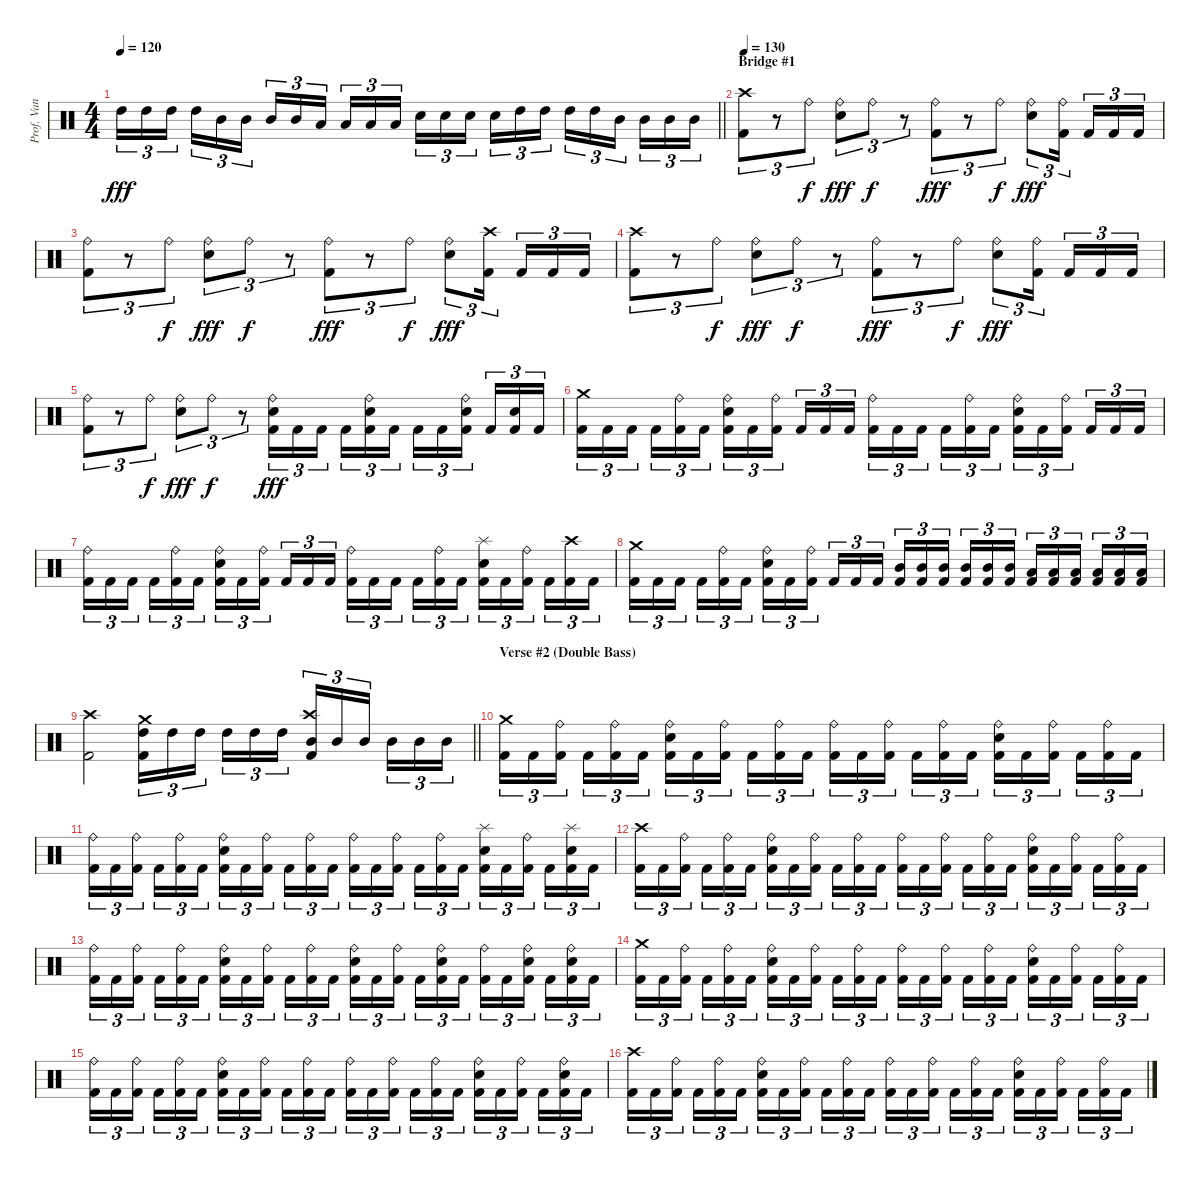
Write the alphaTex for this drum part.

\track ("Prof. Van Helsing (Drums)" "Prof. Van ") {instrument percussion}
\staff {score}
\articulation defaults
\ts (4 4)
\tempo 120
\clef neutral
\barLineRight lightlight
\ks c "High Tom (hit)".16{tu (3 2) dy fff} "High Tom (hit)".16{tu (3 2)} "High Tom (hit)".16{tu (3 2) beam splitsecondary} "High Tom (hit)".16{tu (3 2)} "Mid Tom (hit)".16{tu (3 2)} "Mid Tom (hit)".16{tu (3 2)} "Mid Tom (hit)".16{tu (3 2)} "Mid Tom (hit)".16{tu (3 2)} "Low Tom (hit)".16{tu (3 2) beam splitsecondary} "Low Tom (hit)".16{tu (3 2)} "Low Tom (hit)".16{tu (3 2)} "Low Tom (hit)".16{tu (3 2)} "Snare (hit) 2".16{tu (3 2)} "Snare (hit) 2".16{tu (3 2)} "Snare (hit) 2".16{tu (3 2) beam splitsecondary} "Snare (hit) 2".16{tu (3 2)} "High Tom (hit)".16{tu (3 2)} "High Tom (hit)".16{tu (3 2)} "High Tom (hit)".16{tu (3 2)} "High Tom (hit)".16{tu (3 2)} "Mid Tom (hit)".16{tu (3 2) beam splitsecondary} "Mid Tom (hit)".16{tu (3 2)} "Mid Tom (hit)".16{tu (3 2)} "Mid Tom (hit)".16{tu (3 2)}
|
\section ("" "Bridge #1")
\tempo 130
("Crash high (hit)" "Kick (hit) 2").8{tu (3 2)} r.8{tu (3 2)} "Ride (bell)".8{tu (3 2) dy f} ("Ride (bell)" "Snare (hit) 2").8{tu (3 2) dy fff} "Ride (bell)".8{tu (3 2) dy f} r.8{tu (3 2)} ("Ride (bell)" "Kick (hit) 2").8{tu (3 2) dy fff} r.8{tu (3 2)} "Ride (bell)".8{tu (3 2) dy f} ("Ride (bell)" "Snare (hit) 2").8{tu (3 2) dy fff} ("Ride (bell)" "Kick (hit) 2").16{tu (3 2) beam splitsecondary} "Kick (hit) 2".16{tu (3 2)} "Kick (hit) 2".16{tu (3 2)} "Kick (hit) 2".16{tu (3 2)} |
("Ride (bell)" "Kick (hit) 2").8{tu (3 2)} r.8{tu (3 2)} "Ride (bell)".8{tu (3 2) dy f} ("Ride (bell)" "Snare (hit) 2").8{tu (3 2) dy fff} "Ride (bell)".8{tu (3 2) dy f} r.8{tu (3 2)} ("Ride (bell)" "Kick (hit) 2").8{tu (3 2) dy fff} r.8{tu (3 2)} "Ride (bell)".8{tu (3 2) dy f} ("Ride (bell)" "Snare (hit) 2").8{tu (3 2) dy fff} ("Crash high (hit)" "Kick (hit) 2").16{tu (3 2) beam splitsecondary} "Kick (hit) 2".16{tu (3 2)} "Kick (hit) 2".16{tu (3 2)} "Kick (hit) 2".16{tu (3 2)} |
("Crash high (hit)" "Kick (hit) 2").8{tu (3 2)} r.8{tu (3 2)} "Ride (bell)".8{tu (3 2) dy f} ("Ride (bell)" "Snare (hit) 2").8{tu (3 2) dy fff} "Ride (bell)".8{tu (3 2) dy f} r.8{tu (3 2)} ("Ride (bell)" "Kick (hit) 2").8{tu (3 2) dy fff} r.8{tu (3 2)} "Ride (bell)".8{tu (3 2) dy f} ("Ride (bell)" "Snare (hit) 2").8{tu (3 2) dy fff} ("Ride (bell)" "Kick (hit) 2").16{tu (3 2) beam splitsecondary} "Kick (hit) 2".16{tu (3 2)} "Kick (hit) 2".16{tu (3 2)} "Kick (hit) 2".16{tu (3 2)} |
("Ride (bell)" "Kick (hit) 2").8{tu (3 2)} r.8{tu (3 2)} "Ride (bell)".8{tu (3 2) dy f} ("Ride (bell)" "Snare (hit) 2").8{tu (3 2) dy fff} "Ride (bell)".8{tu (3 2) dy f} r.8{tu (3 2)} ("Ride (bell)" "Snare (hit) 2" "Kick (hit) 2").16{tu (3 2) dy fff} "Kick (hit) 2".16{tu (3 2)} "Kick (hit) 2".16{tu (3 2) beam splitsecondary} "Kick (hit) 2".16{tu (3 2)} ("Ride (bell)" "Snare (hit) 2" "Kick (hit) 2").16{tu (3 2)} "Kick (hit) 2".16{tu (3 2)} "Kick (hit) 2".16{tu (3 2)} "Kick (hit) 2".16{tu (3 2)} ("Ride (bell)" "Snare (hit) 2" "Kick (hit) 2").16{tu (3 2) beam splitsecondary} "Kick (hit) 2".16{tu (3 2)} ("Snare (hit) 2" "Kick (hit) 2").16{tu (3 2)} "Kick (hit) 2".16{tu (3 2)} |
("Crash medium (hit)" "Kick (hit) 2").16{tu (3 2)} "Kick (hit) 2".16{tu (3 2)} "Kick (hit) 2".16{tu (3 2) beam splitsecondary} "Kick (hit) 2".16{tu (3 2)} ("Ride (bell)" "Kick (hit) 2").16{tu (3 2)} "Kick (hit) 2".16{tu (3 2)} ("Ride (bell)" "Snare (hit) 2" "Kick (hit) 2").16{tu (3 2)} "Kick (hit) 2".16{tu (3 2)} ("Ride (bell)" "Kick (hit) 2").16{tu (3 2) beam splitsecondary} "Kick (hit) 2".16{tu (3 2)} "Kick (hit) 2".16{tu (3 2)} "Kick (hit) 2".16{tu (3 2)} ("Ride (bell)" "Kick (hit) 2").16{tu (3 2)} "Kick (hit) 2".16{tu (3 2)} "Kick (hit) 2".16{tu (3 2) beam splitsecondary} "Kick (hit) 2".16{tu (3 2)} ("Ride (bell)" "Kick (hit) 2").16{tu (3 2)} "Kick (hit) 2".16{tu (3 2)} ("Ride (bell)" "Snare (hit) 2" "Kick (hit) 2").16{tu (3 2)} "Kick (hit) 2".16{tu (3 2)} ("Ride (bell)" "Kick (hit) 2").16{tu (3 2) beam splitsecondary} "Kick (hit) 2".16{tu (3 2)} "Kick (hit) 2".16{tu (3 2)} "Kick (hit) 2".16{tu (3 2)} |
("Ride (bell)" "Kick (hit) 2").16{tu (3 2)} "Kick (hit) 2".16{tu (3 2)} "Kick (hit) 2".16{tu (3 2) beam splitsecondary} "Kick (hit) 2".16{tu (3 2)} ("Ride (bell)" "Kick (hit) 2").16{tu (3 2)} "Kick (hit) 2".16{tu (3 2)} ("Ride (bell)" "Snare (hit) 2" "Kick (hit) 2").16{tu (3 2)} "Kick (hit) 2".16{tu (3 2)} ("Ride (bell)" "Kick (hit) 2").16{tu (3 2) beam splitsecondary} "Kick (hit) 2".16{tu (3 2)} "Kick (hit) 2".16{tu (3 2)} "Kick (hit) 2".16{tu (3 2)} ("Ride (bell)" "Kick (hit) 2").16{tu (3 2)} "Kick (hit) 2".16{tu (3 2)} "Kick (hit) 2".16{tu (3 2) beam splitsecondary} "Kick (hit) 2".16{tu (3 2)} ("Ride (bell)" "Kick (hit) 2").16{tu (3 2)} "Kick (hit) 2".16{tu (3 2)} ("Splash (hit)" "Snare (hit) 2" "Kick (hit) 2").16{tu (3 2)} "Kick (hit) 2".16{tu (3 2)} ("Ride (bell)" "Kick (hit) 2").16{tu (3 2) beam splitsecondary} "Kick (hit) 2".16{tu (3 2)} ("Crash high (hit)" "Kick (hit) 2").16{tu (3 2)} "Kick (hit) 2".16{tu (3 2)} |
("Crash medium (hit)" "Kick (hit) 2").16{tu (3 2)} "Kick (hit) 2".16{tu (3 2)} "Kick (hit) 2".16{tu (3 2) beam splitsecondary} "Kick (hit) 2".16{tu (3 2)} ("Ride (bell)" "Kick (hit) 2").16{tu (3 2)} "Kick (hit) 2".16{tu (3 2)} ("Ride (bell)" "Snare (hit) 2" "Kick (hit) 2").16{tu (3 2)} "Kick (hit) 2".16{tu (3 2)} ("Ride (bell)" "Kick (hit) 2").16{tu (3 2) beam splitsecondary} "Kick (hit) 2".16{tu (3 2)} "Kick (hit) 2".16{tu (3 2)} "Kick (hit) 2".16{tu (3 2)} ("Mid Tom (hit)" "Kick (hit) 2").16{tu (3 2)} ("Mid Tom (hit)" "Kick (hit) 2").16{tu (3 2)} ("Mid Tom (hit)" "Kick (hit) 2").16{tu (3 2) beam splitsecondary} ("Mid Tom (hit)" "Kick (hit) 2").16{tu (3 2)} ("Mid Tom (hit)" "Kick (hit) 2").16{tu (3 2)} ("Mid Tom (hit)" "Kick (hit) 2").16{tu (3 2)} ("Low Tom (hit)" "Kick (hit) 2").16{tu (3 2)} ("Low Tom (hit)" "Kick (hit) 2").16{tu (3 2)} ("Low Tom (hit)" "Kick (hit) 2").16{tu (3 2) beam splitsecondary} ("Low Tom (hit)" "Kick (hit) 2").16{tu (3 2)} ("Low Tom (hit)" "Kick (hit) 2").16{tu (3 2)} ("Low Tom (hit)" "Kick (hit) 2").16{tu (3 2)} |
\barLineRight lightlight
("Crash high (hit)" "Kick (hit) 2").2 ("Crash medium (hit)" "High Tom (hit)" "Kick (hit) 2").16{tu (3 2)} "High Tom (hit)".16{tu (3 2)} "High Tom (hit)".16{tu (3 2) beam splitsecondary} "High Tom (hit)".16{tu (3 2)} "High Tom (hit)".16{tu (3 2)} "High Tom (hit)".16{tu (3 2)} ("Crash high (hit)" "Mid Tom (hit)" "Kick (hit) 2").16{tu (3 2)} "Mid Tom (hit)".16{tu (3 2)} "Mid Tom (hit)".16{tu (3 2) beam splitsecondary} "Mid Tom (hit)".16{tu (3 2)} "Mid Tom (hit)".16{tu (3 2)} "Mid Tom (hit)".16{tu (3 2)} |
\section ("" "Verse #2 (Double Bass)")
("Crash medium (hit)" "Kick (hit) 2").16{tu (3 2)} "Kick (hit) 2".16{tu (3 2)} ("Ride (bell)" "Kick (hit) 2").16{tu (3 2) beam splitsecondary} "Kick (hit) 2".16{tu (3 2)} ("Ride (bell)" "Kick (hit) 2").16{tu (3 2)} "Kick (hit) 2".16{tu (3 2)} ("Ride (bell)" "Snare (hit) 2" "Kick (hit) 2").16{tu (3 2)} "Kick (hit) 2".16{tu (3 2)} ("Ride (bell)" "Kick (hit) 2").16{tu (3 2) beam splitsecondary} "Kick (hit) 2".16{tu (3 2)} ("Ride (bell)" "Kick (hit) 2").16{tu (3 2)} "Kick (hit) 2".16{tu (3 2)} ("Ride (bell)" "Kick (hit) 2").16{tu (3 2)} "Kick (hit) 2".16{tu (3 2)} ("Ride (bell)" "Kick (hit) 2").16{tu (3 2) beam splitsecondary} "Kick (hit) 2".16{tu (3 2)} ("Ride (bell)" "Kick (hit) 2").16{tu (3 2)} "Kick (hit) 2".16{tu (3 2)} ("Ride (bell)" "Snare (hit) 2" "Kick (hit) 2").16{tu (3 2)} "Kick (hit) 2".16{tu (3 2)} ("Ride (bell)" "Kick (hit) 2").16{tu (3 2) beam splitsecondary} "Kick (hit) 2".16{tu (3 2)} ("Ride (bell)" "Kick (hit) 2").16{tu (3 2)} "Kick (hit) 2".16{tu (3 2)} |
("Ride (bell)" "Kick (hit) 2").16{tu (3 2)} "Kick (hit) 2".16{tu (3 2)} ("Ride (bell)" "Kick (hit) 2").16{tu (3 2) beam splitsecondary} "Kick (hit) 2".16{tu (3 2)} ("Ride (bell)" "Kick (hit) 2").16{tu (3 2)} "Kick (hit) 2".16{tu (3 2)} ("Ride (bell)" "Snare (hit) 2" "Kick (hit) 2").16{tu (3 2)} "Kick (hit) 2".16{tu (3 2)} ("Ride (bell)" "Kick (hit) 2").16{tu (3 2) beam splitsecondary} "Kick (hit) 2".16{tu (3 2)} ("Ride (bell)" "Kick (hit) 2").16{tu (3 2)} "Kick (hit) 2".16{tu (3 2)} ("Ride (bell)" "Kick (hit) 2").16{tu (3 2)} "Kick (hit) 2".16{tu (3 2)} ("Ride (bell)" "Kick (hit) 2").16{tu (3 2) beam splitsecondary} "Kick (hit) 2".16{tu (3 2)} ("Ride (bell)" "Kick (hit) 2").16{tu (3 2)} "Kick (hit) 2".16{tu (3 2)} ("Splash (hit)" "Snare (hit) 2" "Kick (hit) 2").16{tu (3 2)} "Kick (hit) 2".16{tu (3 2)} ("Ride (bell)" "Kick (hit) 2").16{tu (3 2) beam splitsecondary} "Kick (hit) 2".16{tu (3 2)} ("Splash (hit)" "Snare (hit) 2" "Kick (hit) 2").16{tu (3 2)} "Kick (hit) 2".16{tu (3 2)} |
("Crash high (hit)" "Kick (hit) 2").16{tu (3 2)} "Kick (hit) 2".16{tu (3 2)} ("Ride (bell)" "Kick (hit) 2").16{tu (3 2) beam splitsecondary} "Kick (hit) 2".16{tu (3 2)} ("Ride (bell)" "Kick (hit) 2").16{tu (3 2)} "Kick (hit) 2".16{tu (3 2)} ("Ride (bell)" "Snare (hit) 2" "Kick (hit) 2").16{tu (3 2)} "Kick (hit) 2".16{tu (3 2)} ("Ride (bell)" "Kick (hit) 2").16{tu (3 2) beam splitsecondary} "Kick (hit) 2".16{tu (3 2)} ("Ride (bell)" "Kick (hit) 2").16{tu (3 2)} "Kick (hit) 2".16{tu (3 2)} ("Ride (bell)" "Kick (hit) 2").16{tu (3 2)} "Kick (hit) 2".16{tu (3 2)} ("Ride (bell)" "Kick (hit) 2").16{tu (3 2) beam splitsecondary} "Kick (hit) 2".16{tu (3 2)} ("Ride (bell)" "Kick (hit) 2").16{tu (3 2)} "Kick (hit) 2".16{tu (3 2)} ("Ride (bell)" "Snare (hit) 2" "Kick (hit) 2").16{tu (3 2)} "Kick (hit) 2".16{tu (3 2)} ("Ride (bell)" "Kick (hit) 2").16{tu (3 2) beam splitsecondary} "Kick (hit) 2".16{tu (3 2)} ("Ride (bell)" "Kick (hit) 2").16{tu (3 2)} "Kick (hit) 2".16{tu (3 2)} |
("Ride (bell)" "Kick (hit) 2").16{tu (3 2)} "Kick (hit) 2".16{tu (3 2)} ("Ride (bell)" "Kick (hit) 2").16{tu (3 2) beam splitsecondary} "Kick (hit) 2".16{tu (3 2)} ("Ride (bell)" "Kick (hit) 2").16{tu (3 2)} "Kick (hit) 2".16{tu (3 2)} ("Ride (bell)" "Snare (hit) 2" "Kick (hit) 2").16{tu (3 2)} "Kick (hit) 2".16{tu (3 2)} ("Ride (bell)" "Kick (hit) 2").16{tu (3 2) beam splitsecondary} "Kick (hit) 2".16{tu (3 2)} ("Ride (bell)" "Kick (hit) 2").16{tu (3 2)} "Kick (hit) 2".16{tu (3 2)} ("Ride (bell)" "Snare (hit) 2" "Kick (hit) 2").16{tu (3 2)} "Kick (hit) 2".16{tu (3 2)} ("Ride (bell)" "Kick (hit) 2").16{tu (3 2) beam splitsecondary} "Kick (hit) 2".16{tu (3 2)} ("Ride (bell)" "Snare (hit) 2" "Kick (hit) 2").16{tu (3 2)} "Kick (hit) 2".16{tu (3 2)} ("Ride (bell)" "Kick (hit) 2").16{tu (3 2)} "Kick (hit) 2".16{tu (3 2)} ("Ride (bell)" "Snare (hit) 2" "Kick (hit) 2").16{tu (3 2) beam splitsecondary} "Kick (hit) 2".16{tu (3 2)} ("Ride (bell)" "Snare (hit) 2" "Kick (hit) 2").16{tu (3 2)} "Kick (hit) 2".16{tu (3 2)} |
("Crash medium (hit)" "Kick (hit) 2").16{tu (3 2)} "Kick (hit) 2".16{tu (3 2)} ("Ride (bell)" "Kick (hit) 2").16{tu (3 2) beam splitsecondary} "Kick (hit) 2".16{tu (3 2)} ("Ride (bell)" "Kick (hit) 2").16{tu (3 2)} "Kick (hit) 2".16{tu (3 2)} ("Ride (bell)" "Snare (hit) 2" "Kick (hit) 2").16{tu (3 2)} "Kick (hit) 2".16{tu (3 2)} ("Ride (bell)" "Kick (hit) 2").16{tu (3 2) beam splitsecondary} "Kick (hit) 2".16{tu (3 2)} ("Ride (bell)" "Kick (hit) 2").16{tu (3 2)} "Kick (hit) 2".16{tu (3 2)} ("Ride (bell)" "Kick (hit) 2").16{tu (3 2)} "Kick (hit) 2".16{tu (3 2)} ("Ride (bell)" "Kick (hit) 2").16{tu (3 2) beam splitsecondary} "Kick (hit) 2".16{tu (3 2)} ("Ride (bell)" "Kick (hit) 2").16{tu (3 2)} "Kick (hit) 2".16{tu (3 2)} ("Ride (bell)" "Snare (hit) 2" "Kick (hit) 2").16{tu (3 2)} "Kick (hit) 2".16{tu (3 2)} ("Ride (bell)" "Kick (hit) 2").16{tu (3 2) beam splitsecondary} "Kick (hit) 2".16{tu (3 2)} ("Ride (bell)" "Kick (hit) 2").16{tu (3 2)} "Kick (hit) 2".16{tu (3 2)} |
("Ride (bell)" "Kick (hit) 2").16{tu (3 2)} "Kick (hit) 2".16{tu (3 2)} ("Ride (bell)" "Kick (hit) 2").16{tu (3 2) beam splitsecondary} "Kick (hit) 2".16{tu (3 2)} ("Ride (bell)" "Kick (hit) 2").16{tu (3 2)} "Kick (hit) 2".16{tu (3 2)} ("Ride (bell)" "Snare (hit) 2" "Kick (hit) 2").16{tu (3 2)} "Kick (hit) 2".16{tu (3 2)} ("Ride (bell)" "Kick (hit) 2").16{tu (3 2) beam splitsecondary} "Kick (hit) 2".16{tu (3 2)} ("Ride (bell)" "Kick (hit) 2").16{tu (3 2)} "Kick (hit) 2".16{tu (3 2)} ("Ride (bell)" "Kick (hit) 2").16{tu (3 2)} "Kick (hit) 2".16{tu (3 2)} ("Ride (bell)" "Kick (hit) 2").16{tu (3 2) beam splitsecondary} "Kick (hit) 2".16{tu (3 2)} ("Ride (bell)" "Kick (hit) 2").16{tu (3 2)} "Kick (hit) 2".16{tu (3 2)} ("Ride (bell)" "Snare (hit) 2" "Kick (hit) 2").16{tu (3 2)} "Kick (hit) 2".16{tu (3 2)} ("Ride (bell)" "Kick (hit) 2").16{tu (3 2) beam splitsecondary} "Kick (hit) 2".16{tu (3 2)} ("Ride (bell)" "Snare (hit) 2" "Kick (hit) 2").16{tu (3 2)} "Kick (hit) 2".16{tu (3 2)} |
("Crash high (hit)" "Kick (hit) 2").16{tu (3 2)} "Kick (hit) 2".16{tu (3 2)} ("Ride (bell)" "Kick (hit) 2").16{tu (3 2) beam splitsecondary} "Kick (hit) 2".16{tu (3 2)} ("Ride (bell)" "Kick (hit) 2").16{tu (3 2)} "Kick (hit) 2".16{tu (3 2)} ("Ride (bell)" "Snare (hit) 2" "Kick (hit) 2").16{tu (3 2)} "Kick (hit) 2".16{tu (3 2)} ("Ride (bell)" "Kick (hit) 2").16{tu (3 2) beam splitsecondary} "Kick (hit) 2".16{tu (3 2)} ("Ride (bell)" "Kick (hit) 2").16{tu (3 2)} "Kick (hit) 2".16{tu (3 2)} ("Ride (bell)" "Kick (hit) 2").16{tu (3 2)} "Kick (hit) 2".16{tu (3 2)} ("Ride (bell)" "Kick (hit) 2").16{tu (3 2) beam splitsecondary} "Kick (hit) 2".16{tu (3 2)} ("Ride (bell)" "Kick (hit) 2").16{tu (3 2)} "Kick (hit) 2".16{tu (3 2)} ("Ride (bell)" "Snare (hit) 2" "Kick (hit) 2").16{tu (3 2)} "Kick (hit) 2".16{tu (3 2)} ("Ride (bell)" "Kick (hit) 2").16{tu (3 2) beam splitsecondary} "Kick (hit) 2".16{tu (3 2)} ("Ride (bell)" "Kick (hit) 2").16{tu (3 2)} "Kick (hit) 2".16{tu (3 2)}
